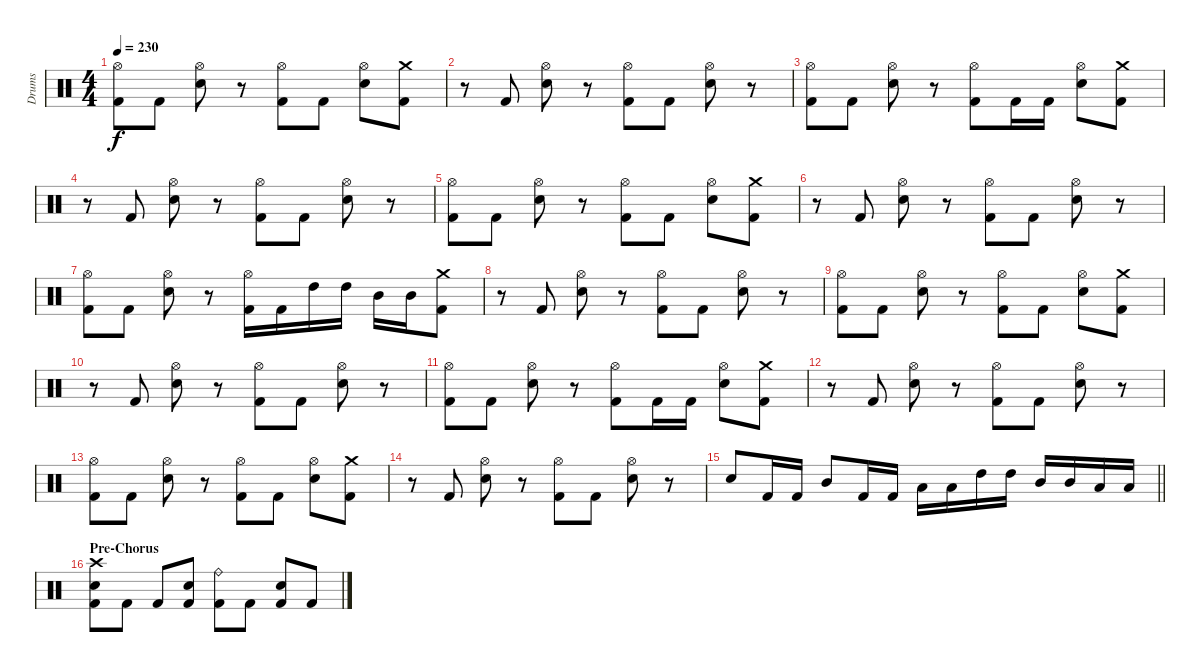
\track ("Drums" "Drums") {instrument percussion}
\staff {score}
\articulation defaults
\ts (4 4)
\tempo 230
\clef neutral
\ks c
("Hi-Hat (open)" "Kick (hit) 2").8{dy f} "Kick (hit) 2".8 ("Hi-Hat (open)" "Electric Snare (hit)").8 r.8 ("Hi-Hat (open)" "Kick (hit) 2").8 "Kick (hit) 2".8 ("Hi-Hat (open)" "Electric Snare (hit)").8 ("Crash medium (hit)" "Kick (hit) 2").8 |
r.8 "Kick (hit) 2".8 ("Hi-Hat (open)" "Electric Snare (hit)").8 r.8 ("Hi-Hat (open)" "Kick (hit) 2").8 "Kick (hit) 2".8 ("Hi-Hat (open)" "Electric Snare (hit)").8 r.8 |
("Hi-Hat (open)" "Kick (hit) 2").8 "Kick (hit) 2".8 ("Hi-Hat (open)" "Electric Snare (hit)").8 r.8 ("Hi-Hat (open)" "Kick (hit) 2").8 "Kick (hit) 2".16 "Kick (hit) 2".16 ("Hi-Hat (open)" "Electric Snare (hit)").8 ("Crash medium (hit)" "Kick (hit) 2").8 |
r.8 "Kick (hit) 2".8 ("Hi-Hat (open)" "Electric Snare (hit)").8 r.8 ("Hi-Hat (open)" "Kick (hit) 2").8 "Kick (hit) 2".8 ("Hi-Hat (open)" "Electric Snare (hit)").8 r.8 |
("Hi-Hat (open)" "Kick (hit) 2").8 "Kick (hit) 2".8 ("Hi-Hat (open)" "Electric Snare (hit)").8 r.8 ("Hi-Hat (open)" "Kick (hit) 2").8 "Kick (hit) 2".8 ("Hi-Hat (open)" "Electric Snare (hit)").8 ("Crash medium (hit)" "Kick (hit) 2").8 |
r.8 "Kick (hit) 2".8 ("Hi-Hat (open)" "Electric Snare (hit)").8 r.8 ("Hi-Hat (open)" "Kick (hit) 2").8 "Kick (hit) 2".8 ("Hi-Hat (open)" "Electric Snare (hit)").8 r.8 |
("Hi-Hat (open)" "Kick (hit) 2").8 "Kick (hit) 2".8 ("Hi-Hat (open)" "Electric Snare (hit)").8 r.8 ("Hi-Hat (open)" "Kick (hit) 2").16 "Kick (hit) 2".16 "High Tom (hit)".16 "High Tom (hit)".16 "Mid Tom (hit)".16 "Mid Tom (hit)".16 ("Crash medium (hit)" "Kick (hit) 2").8 |
r.8 "Kick (hit) 2".8 ("Hi-Hat (open)" "Electric Snare (hit)").8 r.8 ("Hi-Hat (open)" "Kick (hit) 2").8 "Kick (hit) 2".8 ("Hi-Hat (open)" "Electric Snare (hit)").8 r.8 |
("Hi-Hat (open)" "Kick (hit) 2").8 "Kick (hit) 2".8 ("Hi-Hat (open)" "Electric Snare (hit)").8 r.8 ("Hi-Hat (open)" "Kick (hit) 2").8 "Kick (hit) 2".8 ("Hi-Hat (open)" "Electric Snare (hit)").8 ("Crash medium (hit)" "Kick (hit) 2").8 |
r.8 "Kick (hit) 2".8 ("Hi-Hat (open)" "Electric Snare (hit)").8 r.8 ("Hi-Hat (open)" "Kick (hit) 2").8 "Kick (hit) 2".8 ("Hi-Hat (open)" "Electric Snare (hit)").8 r.8 |
("Hi-Hat (open)" "Kick (hit) 2").8 "Kick (hit) 2".8 ("Hi-Hat (open)" "Electric Snare (hit)").8 r.8 ("Hi-Hat (open)" "Kick (hit) 2").8 "Kick (hit) 2".16 "Kick (hit) 2".16 ("Hi-Hat (open)" "Electric Snare (hit)").8 ("Crash medium (hit)" "Kick (hit) 2").8 |
r.8 "Kick (hit) 2".8 ("Hi-Hat (open)" "Electric Snare (hit)").8 r.8 ("Hi-Hat (open)" "Kick (hit) 2").8 "Kick (hit) 2".8 ("Hi-Hat (open)" "Electric Snare (hit)").8 r.8 |
("Hi-Hat (open)" "Kick (hit) 2").8 "Kick (hit) 2".8 ("Hi-Hat (open)" "Electric Snare (hit)").8 r.8 ("Hi-Hat (open)" "Kick (hit) 2").8 "Kick (hit) 2".8 ("Hi-Hat (open)" "Electric Snare (hit)").8 ("Crash medium (hit)" "Kick (hit) 2").8 |
r.8 "Kick (hit) 2".8 ("Hi-Hat (open)" "Electric Snare (hit)").8 r.8 ("Hi-Hat (open)" "Kick (hit) 2").8 "Kick (hit) 2".8 ("Hi-Hat (open)" "Electric Snare (hit)").8 r.8 |
\barLineRight lightlight "Electric Snare (hit)".8 "Kick (hit) 2".16 "Kick (hit) 2".16 "Mid Tom (hit)".8 "Kick (hit) 2".16 "Kick (hit) 2".16 "Low Tom (hit)".16 "Low Tom (hit)".16 "High Tom (hit)".16 "High Tom (hit)".16 "Mid Tom (hit)".16 "Mid Tom (hit)".16 "Low Tom (hit)".16 "Low Tom (hit)".16
|
\section ("" "Pre-Chorus")
("Crash high (hit)" "Electric Snare (hit)" "Kick (hit) 2").8 "Kick (hit) 2".8 "Kick (hit) 2".8 ("Electric Snare (hit)" "Kick (hit) 2").8 ("Ride (bell)" "Kick (hit) 2").8 "Kick (hit) 2".8 ("Electric Snare (hit)" "Kick (hit) 2").8 "Kick (hit) 2".8
